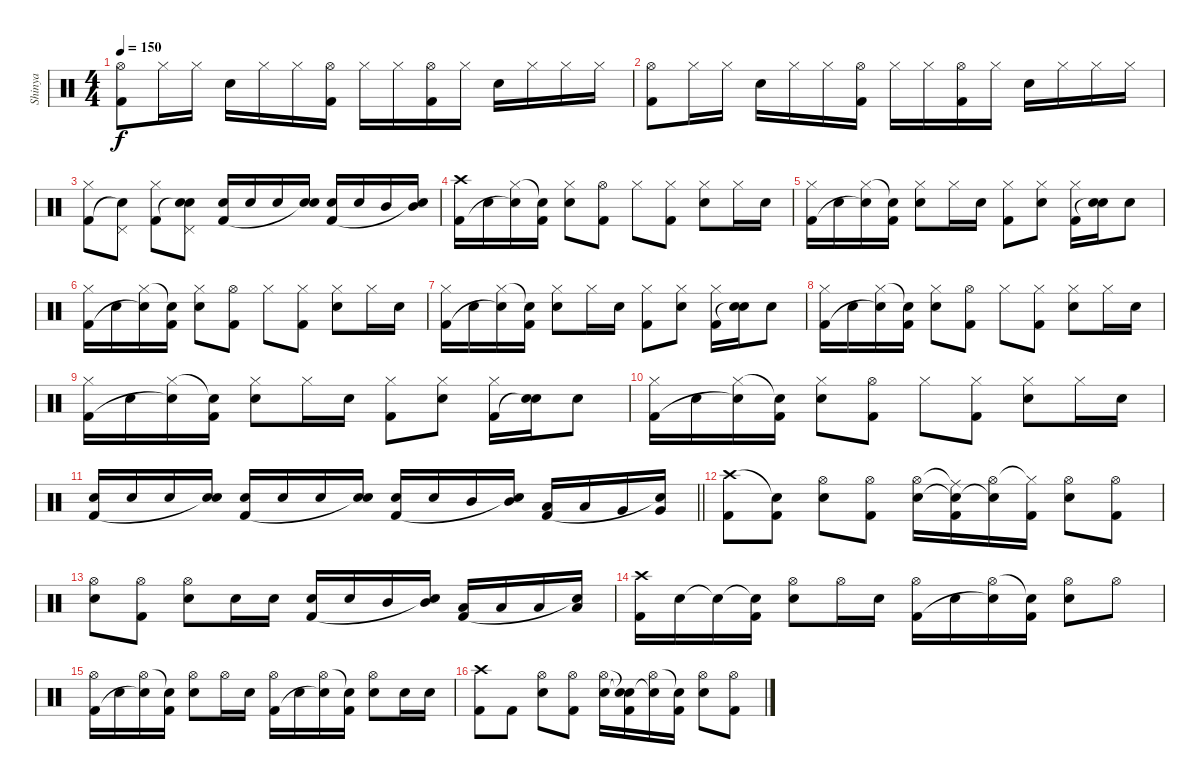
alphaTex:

\track ("Shinya" "Shinya") {instrument percussion}
\staff {score}
\articulation defaults
\ts (4 4)
\tempo 150
\clef neutral
\ks c
("Hi-Hat (open)" "Kick (hit) 2").8{dy f} "Hi-Hat (closed)".16 "Hi-Hat (closed)".16 "Electric Snare (hit)".16 "Hi-Hat (closed)".16 "Hi-Hat (closed)".16 ("Hi-Hat (open)" "Kick (hit) 2").16 "Hi-Hat (closed)".16 "Hi-Hat (closed)".16 ("Hi-Hat (open)" "Kick (hit) 2").16 "Hi-Hat (closed)".16 "Electric Snare (hit)".16 "Hi-Hat (closed)".16 "Hi-Hat (closed)".16 "Hi-Hat (closed)".16 |
("Hi-Hat (open)" "Kick (hit) 2").8 "Hi-Hat (closed)".16 "Hi-Hat (closed)".16 "Electric Snare (hit)".16 "Hi-Hat (closed)".16 "Hi-Hat (closed)".16 ("Hi-Hat (open)" "Kick (hit) 2").16 "Hi-Hat (closed)".16 "Hi-Hat (closed)".16 ("Hi-Hat (open)" "Kick (hit) 2").16 "Hi-Hat (closed)".16 "Electric Snare (hit)".16 "Hi-Hat (closed)".16 "Hi-Hat (closed)".16 "Hi-Hat (closed)".16 |
("Hi-Hat (closed)" "Kick (hit) 2").8 ("Pedal Hi-Hat (hit)" "Snare (hit)"{t}).8 ("Hi-Hat (closed)" "Kick (hit) 2").8 ("Pedal Hi-Hat (hit)" "Snare (hit)"{t} "Electric Snare (hit)").8 ("Electric Snare (hit)" "Kick (hit) 2").16 "Electric Snare (hit)".16 "Electric Snare (hit)".16 ("Electric Snare (hit)" "Snare (hit)"{t}).16 ("Electric Snare (hit)" "Kick (hit) 2").16 "Electric Snare (hit)".16 "Mid Tom (hit)".16 ("Mid Tom (hit)" "Snare (hit)"{t}).16 |
("Crash high (hit)" "Kick (hit) 2").16 "Electric Snare (hit)".16 ("Hi-Hat (closed)" "Snare (hit)"{t}).16 ("Snare (hit)"{t} "Kick (hit) 2").16 ("Hi-Hat (closed)" "Electric Snare (hit)").8 ("Hi-Hat (open)" "Kick (hit) 2").8 "Hi-Hat (closed)".8 ("Hi-Hat (closed)" "Kick (hit) 2").8 ("Hi-Hat (closed)" "Electric Snare (hit)").8 "Hi-Hat (closed)".16 "Electric Snare (hit)".16 |
("Hi-Hat (closed)" "Kick (hit) 2").16 "Electric Snare (hit)".16 ("Hi-Hat (closed)" "Snare (hit)"{t}).16 ("Snare (hit)"{t} "Kick (hit) 2").16 ("Hi-Hat (closed)" "Electric Snare (hit)").8 "Hi-Hat (closed)".16 "Electric Snare (hit)".16 ("Hi-Hat (closed)" "Kick (hit) 2").8 ("Hi-Hat (closed)" "Electric Snare (hit)").8 ("Hi-Hat (closed)" "Kick (hit) 2").16 ("Electric Snare (hit)" "Snare (hit)"{t}).16 "Electric Snare (hit)".8 |
("Hi-Hat (closed)" "Kick (hit) 2").16 "Electric Snare (hit)".16 ("Hi-Hat (closed)" "Snare (hit)"{t}).16 ("Snare (hit)"{t} "Kick (hit) 2").16 ("Hi-Hat (closed)" "Electric Snare (hit)").8 ("Hi-Hat (open)" "Kick (hit) 2").8 "Hi-Hat (closed)".8 ("Hi-Hat (closed)" "Kick (hit) 2").8 ("Hi-Hat (closed)" "Electric Snare (hit)").8 "Hi-Hat (closed)".16 "Electric Snare (hit)".16 |
("Hi-Hat (closed)" "Kick (hit) 2").16 "Electric Snare (hit)".16 ("Hi-Hat (closed)" "Snare (hit)"{t}).16 ("Snare (hit)"{t} "Kick (hit) 2").16 ("Hi-Hat (closed)" "Electric Snare (hit)").8 "Hi-Hat (closed)".16 "Electric Snare (hit)".16 ("Hi-Hat (closed)" "Kick (hit) 2").8 ("Hi-Hat (closed)" "Electric Snare (hit)").8 ("Hi-Hat (closed)" "Kick (hit) 2").16 ("Electric Snare (hit)" "Snare (hit)"{t}).16 "Electric Snare (hit)".8 |
("Hi-Hat (closed)" "Kick (hit) 2").16 "Electric Snare (hit)".16 ("Hi-Hat (closed)" "Snare (hit)"{t}).16 ("Snare (hit)"{t} "Kick (hit) 2").16 ("Hi-Hat (closed)" "Electric Snare (hit)").8 ("Hi-Hat (open)" "Kick (hit) 2").8 "Hi-Hat (closed)".8 ("Hi-Hat (closed)" "Kick (hit) 2").8 ("Hi-Hat (closed)" "Electric Snare (hit)").8 "Hi-Hat (closed)".16 "Electric Snare (hit)".16 |
("Hi-Hat (closed)" "Kick (hit) 2").16 "Electric Snare (hit)".16 ("Hi-Hat (closed)" "Snare (hit)"{t}).16 ("Snare (hit)"{t} "Kick (hit) 2").16 ("Hi-Hat (closed)" "Electric Snare (hit)").8 "Hi-Hat (closed)".16 "Electric Snare (hit)".16 ("Hi-Hat (closed)" "Kick (hit) 2").8 ("Hi-Hat (closed)" "Electric Snare (hit)").8 ("Hi-Hat (closed)" "Kick (hit) 2").16 ("Electric Snare (hit)" "Snare (hit)"{t}).16 "Electric Snare (hit)".8 |
("Hi-Hat (closed)" "Kick (hit) 2").16 "Electric Snare (hit)".16 ("Hi-Hat (closed)" "Snare (hit)"{t}).16 ("Snare (hit)"{t} "Kick (hit) 2").16 ("Hi-Hat (closed)" "Electric Snare (hit)").8 ("Hi-Hat (open)" "Kick (hit) 2").8 "Hi-Hat (closed)".8 ("Hi-Hat (closed)" "Kick (hit) 2").8 ("Hi-Hat (closed)" "Electric Snare (hit)").8 "Hi-Hat (closed)".16 "Electric Snare (hit)".16 |
\barLineRight lightlight
("Electric Snare (hit)" "Kick (hit) 2").16 "Electric Snare (hit)".16 "Electric Snare (hit)".16 ("Electric Snare (hit)" "Snare (hit)"{t}).16 ("Electric Snare (hit)" "Kick (hit) 2").16 "Electric Snare (hit)".16 "Electric Snare (hit)".16 ("Electric Snare (hit)" "Snare (hit)"{t}).16 ("Electric Snare (hit)" "Kick (hit) 2").16 "Electric Snare (hit)".16 "Mid Tom (hit)".16 ("Mid Tom (hit)" "Snare (hit)"{t}).16 ("Low Tom (hit)" "Kick (hit) 2").16 "Low Tom (hit)".16 "Very Low Tom (hit)".16 ("Very Low Tom (hit)" "Snare (hit)"{t}).16 |
("Crash high (hit)" "Kick (hit) 2").8 ("Snare (hit)"{t} "Kick (hit) 2").8 ("Hi-Hat (open)" "Electric Snare (hit)").8 ("Hi-Hat (open)" "Kick (hit) 2").8 ("Hi-Hat (open)" "Electric Snare (hit)").16 ("Ride (middle)"{t} "Snare (hit)"{t} "Kick (hit) 2").16 ("Hi-Hat (open)" "Snare (hit)"{t}).16 ("Hi-Hat (closed)"{t} "Kick (hit) 2").16 ("Hi-Hat (open)" "Electric Snare (hit)").8 ("Hi-Hat (open)" "Kick (hit) 2").8 |
("Hi-Hat (open)" "Electric Snare (hit)").8 ("Hi-Hat (open)" "Kick (hit) 2").8 ("Hi-Hat (open)" "Electric Snare (hit)").8 "Electric Snare (hit)".16 "Electric Snare (hit)".16 ("Electric Snare (hit)" "Kick (hit) 2").16 "Electric Snare (hit)".16 "Mid Tom (hit)".16 ("Mid Tom (hit)" "Snare (hit)"{t}).16 ("Low Tom (hit)" "Kick (hit) 2").16 "Low Tom (hit)".16 "Low Floor Tom (hit)".16 ("Low Floor Tom (hit)" "Snare (hit)"{t}).16 |
("Crash high (hit)" "Kick (hit) 2").16 "Electric Snare (hit)".16 "Snare (hit)"{t}.16 ("Snare (hit)"{t} "Kick (hit) 2").16 ("Hi-Hat (open)" "Electric Snare (hit)").8 "Hi-Hat (open)".16 "Electric Snare (hit)".16 ("Hi-Hat (open)" "Kick (hit) 2").16 "Electric Snare (hit)".16 ("Hi-Hat (open)" "Snare (hit)"{t}).16 ("Snare (hit)"{t} "Kick (hit) 2").16 ("Hi-Hat (open)" "Electric Snare (hit)").8 "Hi-Hat (open)".8 |
("Hi-Hat (open)" "Kick (hit) 2").16 "Electric Snare (hit)".16 ("Hi-Hat (open)" "Snare (hit)"{t}).16 ("Snare (hit)"{t} "Kick (hit) 2").16 ("Hi-Hat (open)" "Electric Snare (hit)").8 "Hi-Hat (open)".16 "Electric Snare (hit)".16 ("Hi-Hat (open)" "Kick (hit) 2").16 "Electric Snare (hit)".16 ("Hi-Hat (open)" "Snare (hit)"{t}).16 ("Snare (hit)"{t} "Kick (hit) 2").16 ("Hi-Hat (open)" "Electric Snare (hit)").8 "Electric Snare (hit)".16 "Electric Snare (hit)".16 |
("Crash high (hit)" "Kick (hit) 2").8 "Kick (hit) 2".8 ("Hi-Hat (open)" "Electric Snare (hit)").8 ("Hi-Hat (open)" "Kick (hit) 2").8 ("Hi-Hat (open)" "Electric Snare (hit)").16 ("Snare (hit)"{t} "Snare (hit)"{t} "Kick (hit) 2").16 ("Hi-Hat (open)" "Snare (hit)"{t}).16 ("Snare (hit)"{t} "Kick (hit) 2").16 ("Hi-Hat (open)" "Electric Snare (hit)").8 ("Hi-Hat (open)" "Kick (hit) 2").8
